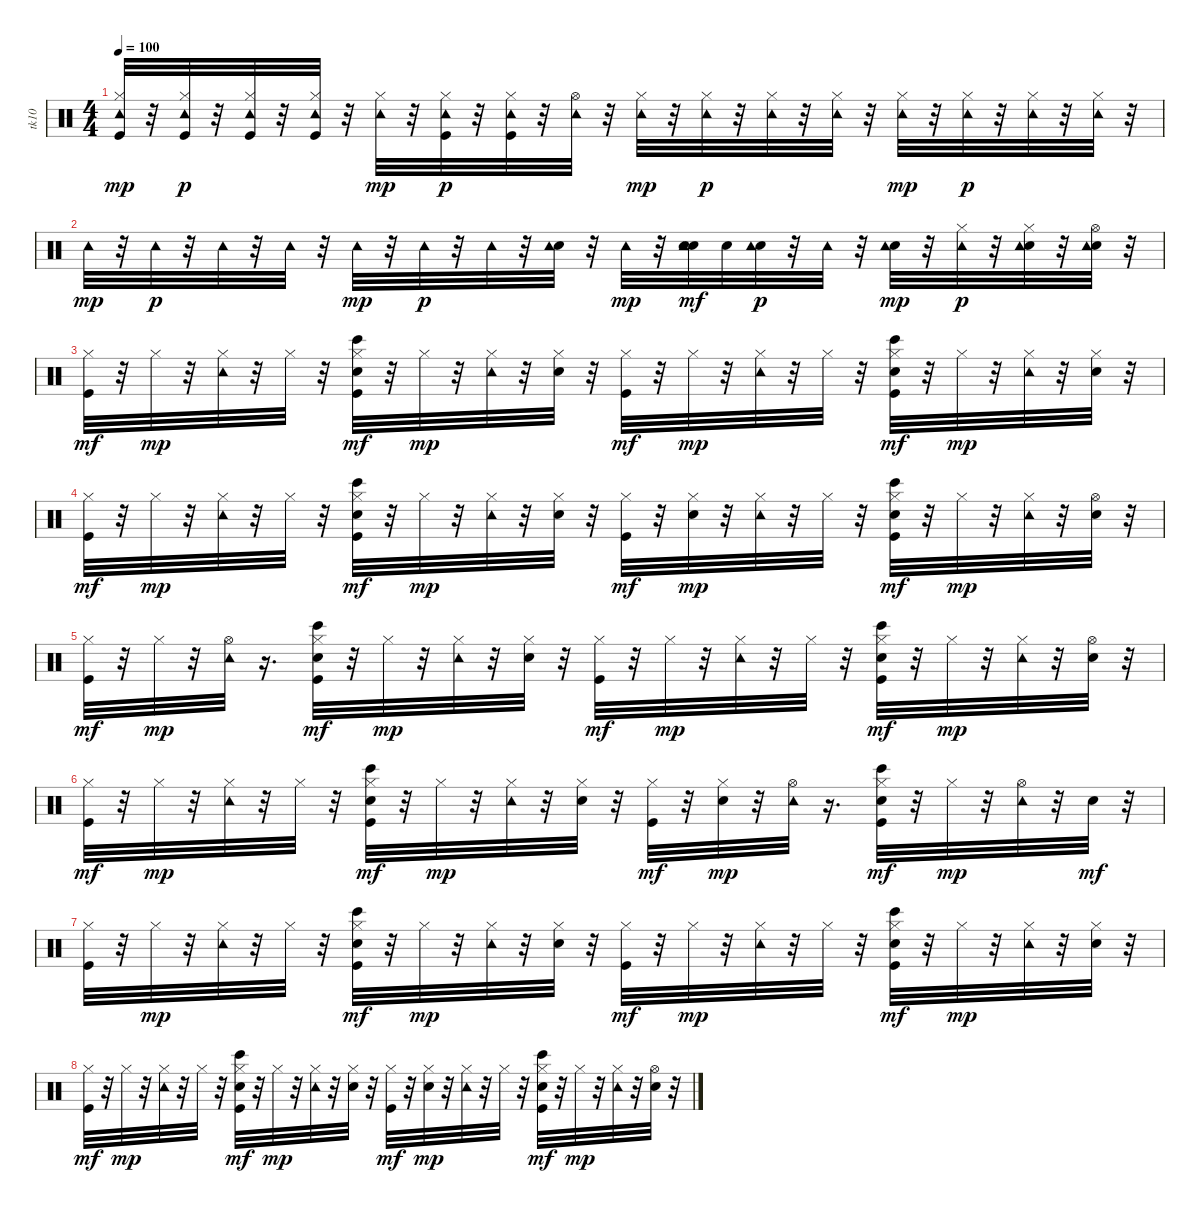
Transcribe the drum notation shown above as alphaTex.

\track ("tk10" "tk10") {instrument percussion}
\staff {score}
\articulation defaults
\ts (4 4)
\tempo 100
\clef neutral
\ks c
("Kick (hit)" "Hi-Hat (closed)" "Tambourine (hit)").32{dy mp} r.32 ("Kick (hit)" "Hi-Hat (closed)" "Tambourine (hit)").32{dy p} r.32 ("Kick (hit)" "Hi-Hat (closed)" "Tambourine (hit)").32 r.32 ("Kick (hit)" "Hi-Hat (closed)" "Tambourine (hit)").32 r.32 ("Hi-Hat (closed)" "Tambourine (hit)").32{dy mp} r.32 ("Kick (hit)" "Hi-Hat (closed)" "Tambourine (hit)").32{dy p} r.32 ("Kick (hit)" "Hi-Hat (closed)" "Tambourine (hit)").32 r.32 ("Hi-Hat (open)" "Tambourine (hit)").32 r.32 ("Hi-Hat (closed)" "Tambourine (hit)").32{dy mp} r.32 ("Hi-Hat (closed)" "Tambourine (hit)").32{dy p} r.32 ("Hi-Hat (closed)" "Tambourine (hit)").32 r.32 ("Hi-Hat (closed)" "Tambourine (hit)").32 r.32 ("Hi-Hat (closed)" "Tambourine (hit)").32{dy mp} r.32 ("Hi-Hat (closed)" "Tambourine (hit)").32{dy p} r.32 ("Hi-Hat (closed)" "Tambourine (hit)").32 r.32 ("Hi-Hat (closed)" "Tambourine (hit)").32 r.32 |
"Tambourine (hit)".32{dy mp} r.32 "Tambourine (hit)".32{dy p} r.32 "Tambourine (hit)".32 r.32 "Tambourine (hit)".32 r.32 "Tambourine (hit)".32{dy mp} r.32 "Tambourine (hit)".32{dy p} r.32 "Tambourine (hit)".32 r.32 ("Snare (hit) 2" "Tambourine (hit)").32 r.32 "Tambourine (hit)".32{dy mp} r.32 ("Snare (hit) 2" "Tambourine (hit)" "Snare (hit) 2").32{dy mf} "Snare (hit) 2".32 ("Snare (hit) 2" "Tambourine (hit)").32{dy p} r.32 "Tambourine (hit)".32 r.32 ("Snare (hit) 2" "Tambourine (hit)").32{dy mp} r.32 ("Hi-Hat (closed)" "Tambourine (hit)").32{dy p} r.32 ("Snare (hit) 2" "Hi-Hat (closed)" "Tambourine (hit)").32 r.32 ("Snare (hit) 2" "Hi-Hat (open)" "Tambourine (hit)").32 r.32 |
("Kick (hit)" "Hi-Hat (closed)").32{dy mf} r.32 "Hi-Hat (closed)".32{dy mp} r.32 ("Hi-Hat (closed)" "Tambourine (hit)").32 r.32 "Hi-Hat (closed)".32 r.32 ("Kick (hit)" "Snare (hit) 2" "Hi-Hat (closed)" "Bongo High (hit)").32{dy mf} r.32 "Hi-Hat (closed)".32{dy mp} r.32 ("Hi-Hat (closed)" "Tambourine (hit)").32 r.32 ("Snare (hit) 2" "Hi-Hat (closed)").32 r.32 ("Kick (hit)" "Hi-Hat (closed)").32{dy mf} r.32 "Hi-Hat (closed)".32{dy mp} r.32 ("Hi-Hat (closed)" "Tambourine (hit)").32 r.32 "Hi-Hat (closed)".32 r.32 ("Kick (hit)" "Snare (hit) 2" "Hi-Hat (closed)" "Bongo High (hit)").32{dy mf} r.32 "Hi-Hat (closed)".32{dy mp} r.32 ("Hi-Hat (closed)" "Tambourine (hit)").32 r.32 ("Snare (hit) 2" "Hi-Hat (closed)").32 r.32 |
("Kick (hit)" "Hi-Hat (closed)").32{dy mf} r.32 "Hi-Hat (closed)".32{dy mp} r.32 ("Hi-Hat (closed)" "Tambourine (hit)").32 r.32 "Hi-Hat (closed)".32 r.32 ("Kick (hit)" "Snare (hit) 2" "Hi-Hat (closed)" "Bongo High (hit)").32{dy mf} r.32 "Hi-Hat (closed)".32{dy mp} r.32 ("Hi-Hat (closed)" "Tambourine (hit)").32 r.32 ("Snare (hit) 2" "Hi-Hat (closed)").32 r.32 ("Kick (hit)" "Hi-Hat (closed)").32{dy mf} r.32 ("Snare (hit) 2" "Hi-Hat (closed)").32{dy mp} r.32 ("Hi-Hat (closed)" "Tambourine (hit)").32 r.32 "Hi-Hat (closed)".32 r.32 ("Kick (hit)" "Snare (hit) 2" "Hi-Hat (closed)" "Bongo High (hit)").32{dy mf} r.32 "Hi-Hat (closed)".32{dy mp} r.32 ("Hi-Hat (closed)" "Tambourine (hit)").32 r.32 ("Snare (hit) 2" "Hi-Hat (open)").32 r.32 |
("Kick (hit)" "Hi-Hat (closed)").32{dy mf} r.32 "Hi-Hat (closed)".32{dy mp} r.32 ("Hi-Hat (open)" "Tambourine (hit)").32 r.16{d} ("Kick (hit)" "Snare (hit) 2" "Hi-Hat (closed)" "Bongo High (hit)").32{dy mf} r.32 "Hi-Hat (closed)".32{dy mp} r.32 ("Hi-Hat (closed)" "Tambourine (hit)").32 r.32 ("Snare (hit) 2" "Hi-Hat (closed)").32 r.32 ("Kick (hit)" "Hi-Hat (closed)").32{dy mf} r.32 "Hi-Hat (closed)".32{dy mp} r.32 ("Hi-Hat (closed)" "Tambourine (hit)").32 r.32 "Hi-Hat (closed)".32 r.32 ("Kick (hit)" "Snare (hit) 2" "Hi-Hat (closed)" "Bongo High (hit)").32{dy mf} r.32 "Hi-Hat (closed)".32{dy mp} r.32 ("Hi-Hat (closed)" "Tambourine (hit)").32 r.32 ("Snare (hit) 2" "Hi-Hat (open)").32 r.32 |
("Kick (hit)" "Hi-Hat (closed)").32{dy mf} r.32 "Hi-Hat (closed)".32{dy mp} r.32 ("Hi-Hat (closed)" "Tambourine (hit)").32 r.32 "Hi-Hat (closed)".32 r.32 ("Kick (hit)" "Snare (hit) 2" "Hi-Hat (closed)" "Bongo High (hit)").32{dy mf} r.32 "Hi-Hat (closed)".32{dy mp} r.32 ("Hi-Hat (closed)" "Tambourine (hit)").32 r.32 ("Snare (hit) 2" "Hi-Hat (closed)").32 r.32 ("Kick (hit)" "Hi-Hat (closed)").32{dy mf} r.32 ("Snare (hit) 2" "Hi-Hat (closed)").32{dy mp} r.32 ("Hi-Hat (open)" "Tambourine (hit)").32 r.16{d} ("Kick (hit)" "Snare (hit) 2" "Hi-Hat (closed)" "Bongo High (hit)").32{dy mf} r.32 "Hi-Hat (closed)".32{dy mp} r.32 ("Hi-Hat (open)" "Tambourine (hit)").32 r.32 "Snare (hit) 2".32{dy mf} r.32 |
("Kick (hit)" "Hi-Hat (closed)").32 r.32 "Hi-Hat (closed)".32{dy mp} r.32 ("Hi-Hat (closed)" "Tambourine (hit)").32 r.32 "Hi-Hat (closed)".32 r.32 ("Kick (hit)" "Snare (hit) 2" "Hi-Hat (closed)" "Bongo High (hit)").32{dy mf} r.32 "Hi-Hat (closed)".32{dy mp} r.32 ("Hi-Hat (closed)" "Tambourine (hit)").32 r.32 ("Snare (hit) 2" "Hi-Hat (closed)").32 r.32 ("Kick (hit)" "Hi-Hat (closed)").32{dy mf} r.32 "Hi-Hat (closed)".32{dy mp} r.32 ("Hi-Hat (closed)" "Tambourine (hit)").32 r.32 "Hi-Hat (closed)".32 r.32 ("Kick (hit)" "Snare (hit) 2" "Hi-Hat (closed)" "Bongo High (hit)").32{dy mf} r.32 "Hi-Hat (closed)".32{dy mp} r.32 ("Hi-Hat (closed)" "Tambourine (hit)").32 r.32 ("Snare (hit) 2" "Hi-Hat (closed)").32 r.32 |
("Kick (hit)" "Hi-Hat (closed)").32{dy mf} r.32 "Hi-Hat (closed)".32{dy mp} r.32 ("Hi-Hat (closed)" "Tambourine (hit)").32 r.32 "Hi-Hat (closed)".32 r.32 ("Kick (hit)" "Snare (hit) 2" "Hi-Hat (closed)" "Bongo High (hit)").32{dy mf} r.32 "Hi-Hat (closed)".32{dy mp} r.32 ("Hi-Hat (closed)" "Tambourine (hit)").32 r.32 ("Snare (hit) 2" "Hi-Hat (closed)").32 r.32 ("Kick (hit)" "Hi-Hat (closed)").32{dy mf} r.32 ("Snare (hit) 2" "Hi-Hat (closed)").32{dy mp} r.32 ("Hi-Hat (closed)" "Tambourine (hit)").32 r.32 "Hi-Hat (closed)".32 r.32 ("Kick (hit)" "Snare (hit) 2" "Hi-Hat (closed)" "Bongo High (hit)").32{dy mf} r.32 "Hi-Hat (closed)".32{dy mp} r.32 ("Hi-Hat (closed)" "Tambourine (hit)").32 r.32 ("Snare (hit) 2" "Hi-Hat (open)").32 r.32
